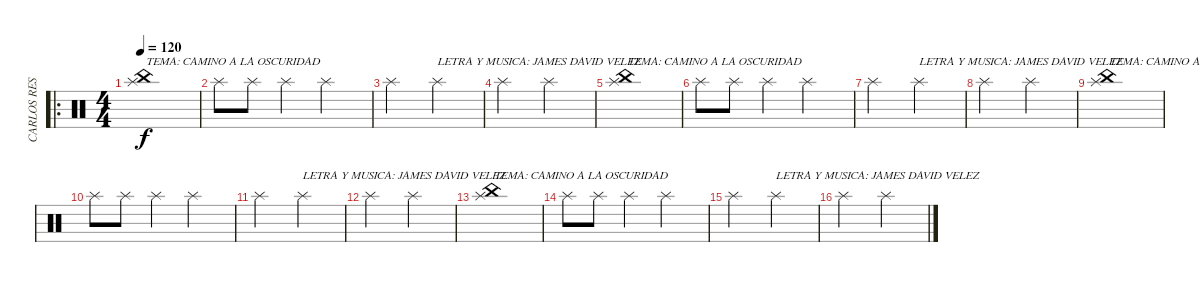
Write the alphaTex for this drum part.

\track ("CARLOS RESTREPO DARK  BATERIA" "CARLOS RES") {instrument percussion}
\staff {score}
\articulation defaults
\ro
\ts (4 4)
\tempo 120
\clef neutral
\ks c
("Splash (hit)" "China (hit)").1{txt "TEMA: CAMINO A LA OSCURIDAD" dy f} |
"Splash (hit)".8 "Splash (hit)".8 "Splash (hit)".4 "Splash (hit)".2 |
"Splash (hit)".2 "Splash (hit)".2{txt "LETRA Y MUSICA: JAMES DAVID VELEZ "} |
"Splash (hit)".2 "Splash (hit)".2 |
("Splash (hit)" "China (hit)").1{txt "TEMA: CAMINO A LA OSCURIDAD"} |
"Splash (hit)".8 "Splash (hit)".8 "Splash (hit)".4 "Splash (hit)".2 |
"Splash (hit)".2 "Splash (hit)".2{txt "LETRA Y MUSICA: JAMES DAVID VELEZ "} |
"Splash (hit)".2 "Splash (hit)".2 |
("Splash (hit)" "China (hit)").1{txt "TEMA: CAMINO A LA OSCURIDAD"} |
"Splash (hit)".8 "Splash (hit)".8 "Splash (hit)".4 "Splash (hit)".2 |
"Splash (hit)".2 "Splash (hit)".2{txt "LETRA Y MUSICA: JAMES DAVID VELEZ "} |
"Splash (hit)".2 "Splash (hit)".2 |
("Splash (hit)" "China (hit)").1{txt "TEMA: CAMINO A LA OSCURIDAD"} |
"Splash (hit)".8 "Splash (hit)".8 "Splash (hit)".4 "Splash (hit)".2 |
"Splash (hit)".2 "Splash (hit)".2{txt "LETRA Y MUSICA: JAMES DAVID VELEZ "} |
"Splash (hit)".2 "Splash (hit)".2
